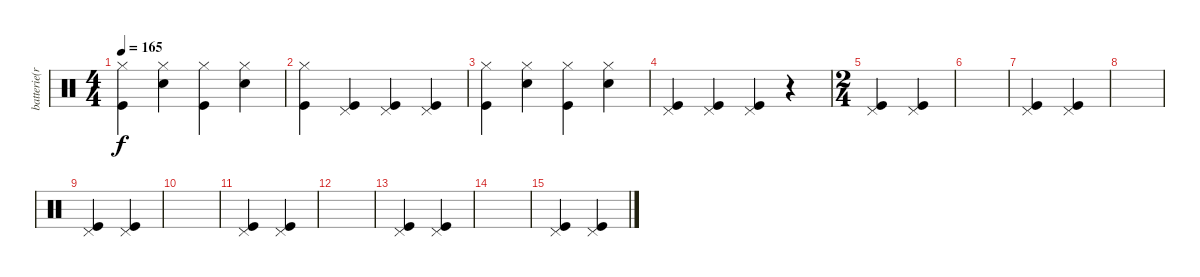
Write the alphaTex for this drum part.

\track ("batterie(rimbaud)" "batterie(r") {instrument percussion}
\staff {score}
\articulation defaults
\ts (4 4)
\tempo 165
\clef neutral
\ks c
("Hi-Hat (closed)" "Kick (hit)").4{dy f} ("Hi-Hat (closed)" "Snare (hit) 2").4 ("Hi-Hat (closed)" "Kick (hit)").4 ("Hi-Hat (closed)" "Snare (hit) 2").4 |
("Hi-Hat (closed)" "Kick (hit)").4 ("Pedal Hi-Hat (hit)" "Kick (hit)").4 ("Pedal Hi-Hat (hit)" "Kick (hit)").4 ("Pedal Hi-Hat (hit)" "Kick (hit)").4 |
("Hi-Hat (closed)" "Kick (hit)").4 ("Hi-Hat (closed)" "Snare (hit) 2").4 ("Hi-Hat (closed)" "Kick (hit)").4 ("Hi-Hat (closed)" "Snare (hit) 2").4 |
("Pedal Hi-Hat (hit)" "Kick (hit)").4 ("Pedal Hi-Hat (hit)" "Kick (hit)").4 ("Pedal Hi-Hat (hit)" "Kick (hit)").4 r.4 |
\ts (2 4)
("Pedal Hi-Hat (hit)" "Kick (hit)").4 ("Pedal Hi-Hat (hit)" "Kick (hit)").4 |
|
("Pedal Hi-Hat (hit)" "Kick (hit)").4 ("Pedal Hi-Hat (hit)" "Kick (hit)").4 |
|
("Pedal Hi-Hat (hit)" "Kick (hit)").4 ("Pedal Hi-Hat (hit)" "Kick (hit)").4 |
|
("Pedal Hi-Hat (hit)" "Kick (hit)").4 ("Pedal Hi-Hat (hit)" "Kick (hit)").4 |
|
("Pedal Hi-Hat (hit)" "Kick (hit)").4 ("Pedal Hi-Hat (hit)" "Kick (hit)").4 |
|
("Pedal Hi-Hat (hit)" "Kick (hit)").4 ("Pedal Hi-Hat (hit)" "Kick (hit)").4
